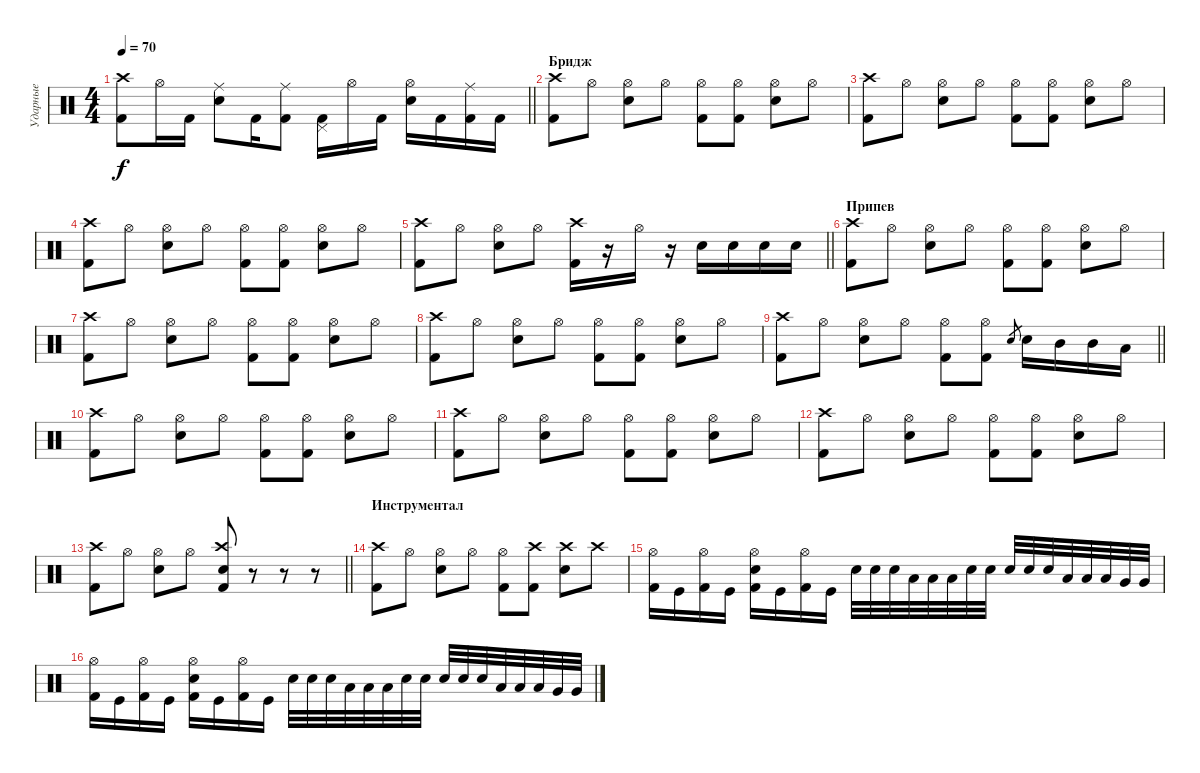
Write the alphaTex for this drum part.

\track ("Ударные" "Ударные") {instrument percussion}
\staff {score}
\articulation defaults
\ts (4 4)
\tempo 70
\clef neutral
\barLineRight lightlight
\ks c
("Kick (hit) 2" "Crash high (hit)").8{dy f} "Hi-Hat (open)".16 "Kick (hit) 2".16 ("Snare (hit) 2" "Ride (middle)").8 "Kick (hit) 2".16 ("Kick (hit) 2" "Ride (middle)").8 ("Kick (hit) 2" "Pedal Hi-Hat (hit)").16 "Hi-Hat (open)".16 "Kick (hit) 2".16 ("Snare (hit) 2" "Hi-Hat (open)").16 "Kick (hit) 2".16 ("Kick (hit) 2" "Ride (middle)").16 "Kick (hit) 2".16 |
\section ("" "Бридж")
("Crash high (hit)" "Kick (hit) 2").8 "Hi-Hat (open)".8 ("Hi-Hat (open)" "Snare (hit) 2").8 "Hi-Hat (open)".8 ("Hi-Hat (open)" "Kick (hit) 2").8 ("Hi-Hat (open)" "Kick (hit) 2").8 ("Hi-Hat (open)" "Snare (hit) 2").8 "Hi-Hat (open)".8 |
("Crash high (hit)" "Kick (hit) 2").8 "Hi-Hat (open)".8 ("Hi-Hat (open)" "Snare (hit) 2").8 "Hi-Hat (open)".8 ("Hi-Hat (open)" "Kick (hit) 2").8 ("Hi-Hat (open)" "Kick (hit) 2").8 ("Hi-Hat (open)" "Snare (hit) 2").8 "Hi-Hat (open)".8 |
("Crash high (hit)" "Kick (hit) 2").8 "Hi-Hat (open)".8 ("Hi-Hat (open)" "Snare (hit) 2").8 "Hi-Hat (open)".8 ("Hi-Hat (open)" "Kick (hit) 2").8 ("Hi-Hat (open)" "Kick (hit) 2").8 ("Hi-Hat (open)" "Snare (hit) 2").8 "Hi-Hat (open)".8 |
\barLineRight lightlight
("Crash high (hit)" "Kick (hit) 2").8 "Hi-Hat (open)".8 ("Hi-Hat (open)" "Snare (hit) 2").8 "Hi-Hat (open)".8 ("Crash high (hit)" "Kick (hit) 2").16 r.16 "Hi-Hat (open)".16 r.16 "Snare (hit) 2".16 "Snare (hit) 2".16 "Snare (hit) 2".16 "Snare (hit) 2".16 |
\section ("" "Припев")
("Crash high (hit)" "Kick (hit) 2").8 "Hi-Hat (open)".8 ("Hi-Hat (open)" "Snare (hit) 2").8 "Hi-Hat (open)".8 ("Hi-Hat (open)" "Kick (hit) 2").8 ("Hi-Hat (open)" "Kick (hit) 2").8 ("Hi-Hat (open)" "Snare (hit) 2").8 "Hi-Hat (open)".8 |
("Crash high (hit)" "Kick (hit) 2").8 "Hi-Hat (open)".8 ("Hi-Hat (open)" "Snare (hit) 2").8 "Hi-Hat (open)".8 ("Hi-Hat (open)" "Kick (hit) 2").8 ("Hi-Hat (open)" "Kick (hit) 2").8 ("Hi-Hat (open)" "Snare (hit) 2").8 "Hi-Hat (open)".8 |
("Crash high (hit)" "Kick (hit) 2").8 "Hi-Hat (open)".8 ("Hi-Hat (open)" "Snare (hit) 2").8 "Hi-Hat (open)".8 ("Hi-Hat (open)" "Kick (hit) 2").8 ("Hi-Hat (open)" "Kick (hit) 2").8 ("Hi-Hat (open)" "Snare (hit) 2").8 "Hi-Hat (open)".8 |
\barLineRight lightlight
("Crash high (hit)" "Kick (hit) 2").8 "Hi-Hat (open)".8 ("Hi-Hat (open)" "Snare (hit) 2").8 "Hi-Hat (open)".8 ("Hi-Hat (open)" "Kick (hit) 2").8 ("Hi-Hat (open)" "Kick (hit) 2").8 "Snare (hit) 2".8{gr} "Snare (hit) 2".16 "Mid Tom (hit)".16 "Mid Tom (hit)".16 "Low Tom (hit)".16 |
\section ("" "")
("Crash high (hit)" "Kick (hit) 2").8 "Hi-Hat (open)".8 ("Hi-Hat (open)" "Snare (hit) 2").8 "Hi-Hat (open)".8 ("Hi-Hat (open)" "Kick (hit) 2").8 ("Hi-Hat (open)" "Kick (hit) 2").8 ("Hi-Hat (open)" "Snare (hit) 2").8 "Hi-Hat (open)".8 |
("Crash high (hit)" "Kick (hit) 2").8 "Hi-Hat (open)".8 ("Hi-Hat (open)" "Snare (hit) 2").8 "Hi-Hat (open)".8 ("Hi-Hat (open)" "Kick (hit) 2").8 ("Hi-Hat (open)" "Kick (hit) 2").8 ("Hi-Hat (open)" "Snare (hit) 2").8 "Hi-Hat (open)".8 |
("Crash high (hit)" "Kick (hit) 2").8 "Hi-Hat (open)".8 ("Hi-Hat (open)" "Snare (hit) 2").8 "Hi-Hat (open)".8 ("Hi-Hat (open)" "Kick (hit) 2").8 ("Hi-Hat (open)" "Kick (hit) 2").8 ("Hi-Hat (open)" "Snare (hit) 2").8 "Hi-Hat (open)".8 |
\barLineRight lightlight
("Crash high (hit)" "Kick (hit) 2").8 "Hi-Hat (open)".8 ("Hi-Hat (open)" "Snare (hit) 2").8 "Hi-Hat (open)".8 ("Crash high (hit)" "Snare (hit) 2" "Kick (hit) 2").8 r.8 r.8 r.8 |
\section ("" "Инструментал")
("Crash high (hit)" "Kick (hit) 2").8 "Hi-Hat (open)".8 ("Hi-Hat (open)" "Snare (hit) 2").8 "Hi-Hat (open)".8 ("Hi-Hat (open)" "Kick (hit) 2").8 ("Crash high (hit)" "Kick (hit) 2").8 ("Crash high (hit)" "Snare (hit) 2").8 "Crash high (hit)".8 |
("Kick (hit) 2" "Hi-Hat (open)").16 "Kick (hit)".16 ("Kick (hit) 2" "Hi-Hat (open)").16 "Kick (hit)".16 ("Kick (hit) 2" "Snare (hit) 2" "Hi-Hat (open)").16 "Kick (hit)".16 ("Kick (hit) 2" "Hi-Hat (open)").16 "Kick (hit)".16 "Snare (hit) 2".32 "Snare (hit) 2".32 "Snare (hit) 2".32 "Low Tom (hit)".32 "Low Tom (hit)".32 "Low Tom (hit)".32 "Snare (hit) 2".32 "Snare (hit) 2".32 "Snare (hit) 2".32 "Snare (hit) 2".32 "Snare (hit) 2".32 "Low Tom (hit)".32 "Low Tom (hit)".32 "Low Tom (hit)".32 "Very Low Tom (hit)".32 "Very Low Tom (hit)".32 |
("Kick (hit) 2" "Hi-Hat (open)").16 "Kick (hit)".16 ("Kick (hit) 2" "Hi-Hat (open)").16 "Kick (hit)".16 ("Kick (hit) 2" "Snare (hit) 2" "Hi-Hat (open)").16 "Kick (hit)".16 ("Kick (hit) 2" "Hi-Hat (open)").16 "Kick (hit)".16 "Snare (hit) 2".32 "Snare (hit) 2".32 "Snare (hit) 2".32 "Low Tom (hit)".32 "Low Tom (hit)".32 "Low Tom (hit)".32 "Snare (hit) 2".32 "Snare (hit) 2".32 "Snare (hit) 2".32 "Snare (hit) 2".32 "Snare (hit) 2".32 "Low Tom (hit)".32 "Low Tom (hit)".32 "Low Tom (hit)".32 "Very Low Tom (hit)".32 "Very Low Tom (hit)".32
